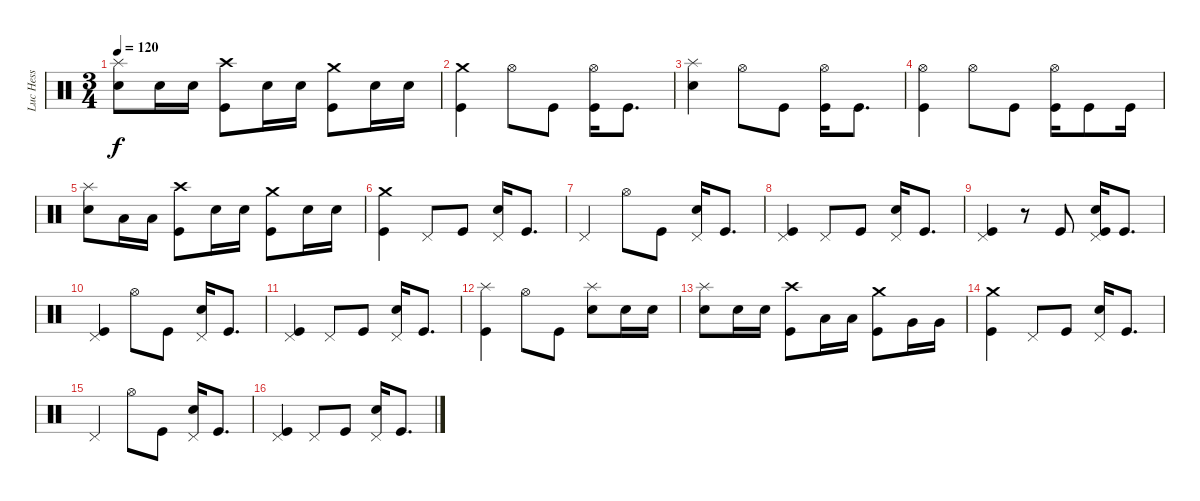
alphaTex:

\track ("Luc Hess" "Luc Hess") {instrument percussion}
\staff {score}
\articulation defaults
\ts (3 4)
\tempo 120
\clef neutral
\ks c
("Snare (hit) 2" "Splash (hit)").8{dy f} "Snare (hit) 2".16 "Snare (hit) 2".16 ("Crash high (hit)" "Kick (hit)").8 "Snare (hit) 2".16 "Snare (hit) 2".16 ("Crash medium (hit)" "Kick (hit)").8 "Snare (hit) 2".16 "Snare (hit) 2".16 |
("Crash medium (hit)" "Kick (hit)").4 "Hi-Hat (open)".8 "Kick (hit)".8 ("Hi-Hat (open)" "Kick (hit)").16 "Kick (hit)".8{d} |
("Snare (hit) 2" "Splash (hit)").4 "Hi-Hat (open)".8 "Kick (hit)".8 ("Hi-Hat (open)" "Kick (hit)").16 "Kick (hit)".8{d} |
("Hi-Hat (open)" "Kick (hit)").4 "Hi-Hat (open)".8 "Kick (hit)".8 ("Hi-Hat (open)" "Kick (hit)").16 "Kick (hit)".8 "Kick (hit)".16 |
("Snare (hit) 2" "Splash (hit)").8 "Low Tom (hit)".16 "Low Tom (hit)".16 ("Crash high (hit)" "Kick (hit)").8 "Snare (hit) 2".16 "Snare (hit) 2".16 ("Crash medium (hit)" "Kick (hit)").8 "Snare (hit) 2".16 "Snare (hit) 2".16 |
("Crash medium (hit)" "Kick (hit)").4 "Pedal Hi-Hat (hit)".8 "Kick (hit)".8 ("Snare (hit) 2" "Pedal Hi-Hat (hit)").16 "Kick (hit)".8{d} |
"Pedal Hi-Hat (hit)".4 "Hi-Hat (open)".8 "Kick (hit)".8 ("Snare (hit) 2" "Pedal Hi-Hat (hit)").16 "Kick (hit)".8{d} |
("Pedal Hi-Hat (hit)" "Kick (hit)").4 "Pedal Hi-Hat (hit)".8 "Kick (hit)".8 ("Snare (hit) 2" "Pedal Hi-Hat (hit)").16 "Kick (hit)".8{d} |
("Pedal Hi-Hat (hit)" "Kick (hit)").4 r.8 "Kick (hit)".8 ("Snare (hit) 2" "Pedal Hi-Hat (hit)" "Kick (hit)").16 "Kick (hit)".8{d} |
("Pedal Hi-Hat (hit)" "Kick (hit)").4 "Hi-Hat (open)".8 "Kick (hit)".8 ("Snare (hit) 2" "Pedal Hi-Hat (hit)").16 "Kick (hit)".8{d} |
("Pedal Hi-Hat (hit)" "Kick (hit)").4 "Pedal Hi-Hat (hit)".8 "Kick (hit)".8 ("Snare (hit) 2" "Pedal Hi-Hat (hit)").16 "Kick (hit)".8{d} |
("Splash (hit)" "Kick (hit)").4 "Hi-Hat (open)".8 "Kick (hit)".8 ("Snare (hit) 2" "Splash (hit)").8 "Snare (hit) 2".16 "Snare (hit) 2".16 |
("Snare (hit) 2" "Splash (hit)").8 "Snare (hit) 2".16 "Snare (hit) 2".16 ("Crash high (hit)" "Kick (hit)").8 "Low Tom (hit)".16 "Low Tom (hit)".16 ("Crash medium (hit)" "Kick (hit)").8 "Very Low Tom (hit)".16 "Very Low Tom (hit)".16 |
("Crash medium (hit)" "Kick (hit)").4 "Pedal Hi-Hat (hit)".8 "Kick (hit)".8 ("Snare (hit) 2" "Pedal Hi-Hat (hit)").16 "Kick (hit)".8{d} |
"Pedal Hi-Hat (hit)".4 "Hi-Hat (open)".8 "Kick (hit)".8 ("Snare (hit) 2" "Pedal Hi-Hat (hit)").16 "Kick (hit)".8{d} |
("Pedal Hi-Hat (hit)" "Kick (hit)").4 "Pedal Hi-Hat (hit)".8 "Kick (hit)".8 ("Snare (hit) 2" "Pedal Hi-Hat (hit)").16 "Kick (hit)".8{d}
